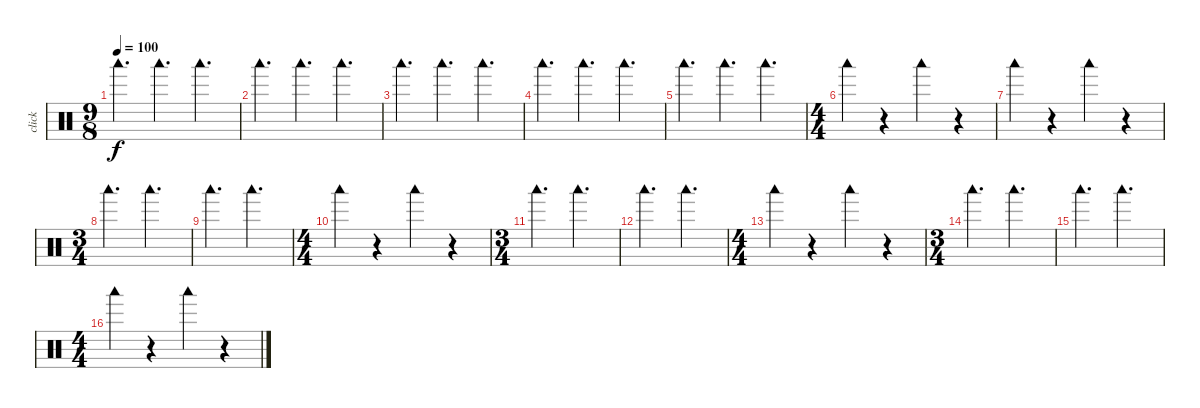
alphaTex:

\track ("click" "click") {mute instrument percussion}
\staff {score}
\articulation defaults
\ts (9 8)
\tempo 100
\clef neutral
\ks c "Woodblock low (hit)".4{d dy f} "Woodblock low (hit)".4{d} "Woodblock low (hit)".4{d}
|
"Woodblock low (hit)".4{d} "Woodblock low (hit)".4{d} "Woodblock low (hit)".4{d} |
"Woodblock low (hit)".4{d} "Woodblock low (hit)".4{d} "Woodblock low (hit)".4{d} |
"Woodblock low (hit)".4{d} "Woodblock low (hit)".4{d} "Woodblock low (hit)".4{d} |
"Woodblock low (hit)".4{d} "Woodblock low (hit)".4{d} "Woodblock low (hit)".4{d} |
\ts (4 4)
"Woodblock low (hit)".4 r.4 "Woodblock low (hit)".4 r.4 |
"Woodblock low (hit)".4 r.4 "Woodblock low (hit)".4 r.4 |
\ts (3 4)
"Woodblock low (hit)".4{d} "Woodblock low (hit)".4{d} |
"Woodblock low (hit)".4{d} "Woodblock low (hit)".4{d} |
\ts (4 4)
"Woodblock low (hit)".4 r.4 "Woodblock low (hit)".4 r.4 |
\ts (3 4)
"Woodblock low (hit)".4{d} "Woodblock low (hit)".4{d} |
"Woodblock low (hit)".4{d} "Woodblock low (hit)".4{d} |
\ts (4 4)
"Woodblock low (hit)".4 r.4 "Woodblock low (hit)".4 r.4 |
\ts (3 4)
"Woodblock low (hit)".4{d} "Woodblock low (hit)".4{d} |
"Woodblock low (hit)".4{d} "Woodblock low (hit)".4{d} |
\ts (4 4)
"Woodblock low (hit)".4 r.4 "Woodblock low (hit)".4 r.4
